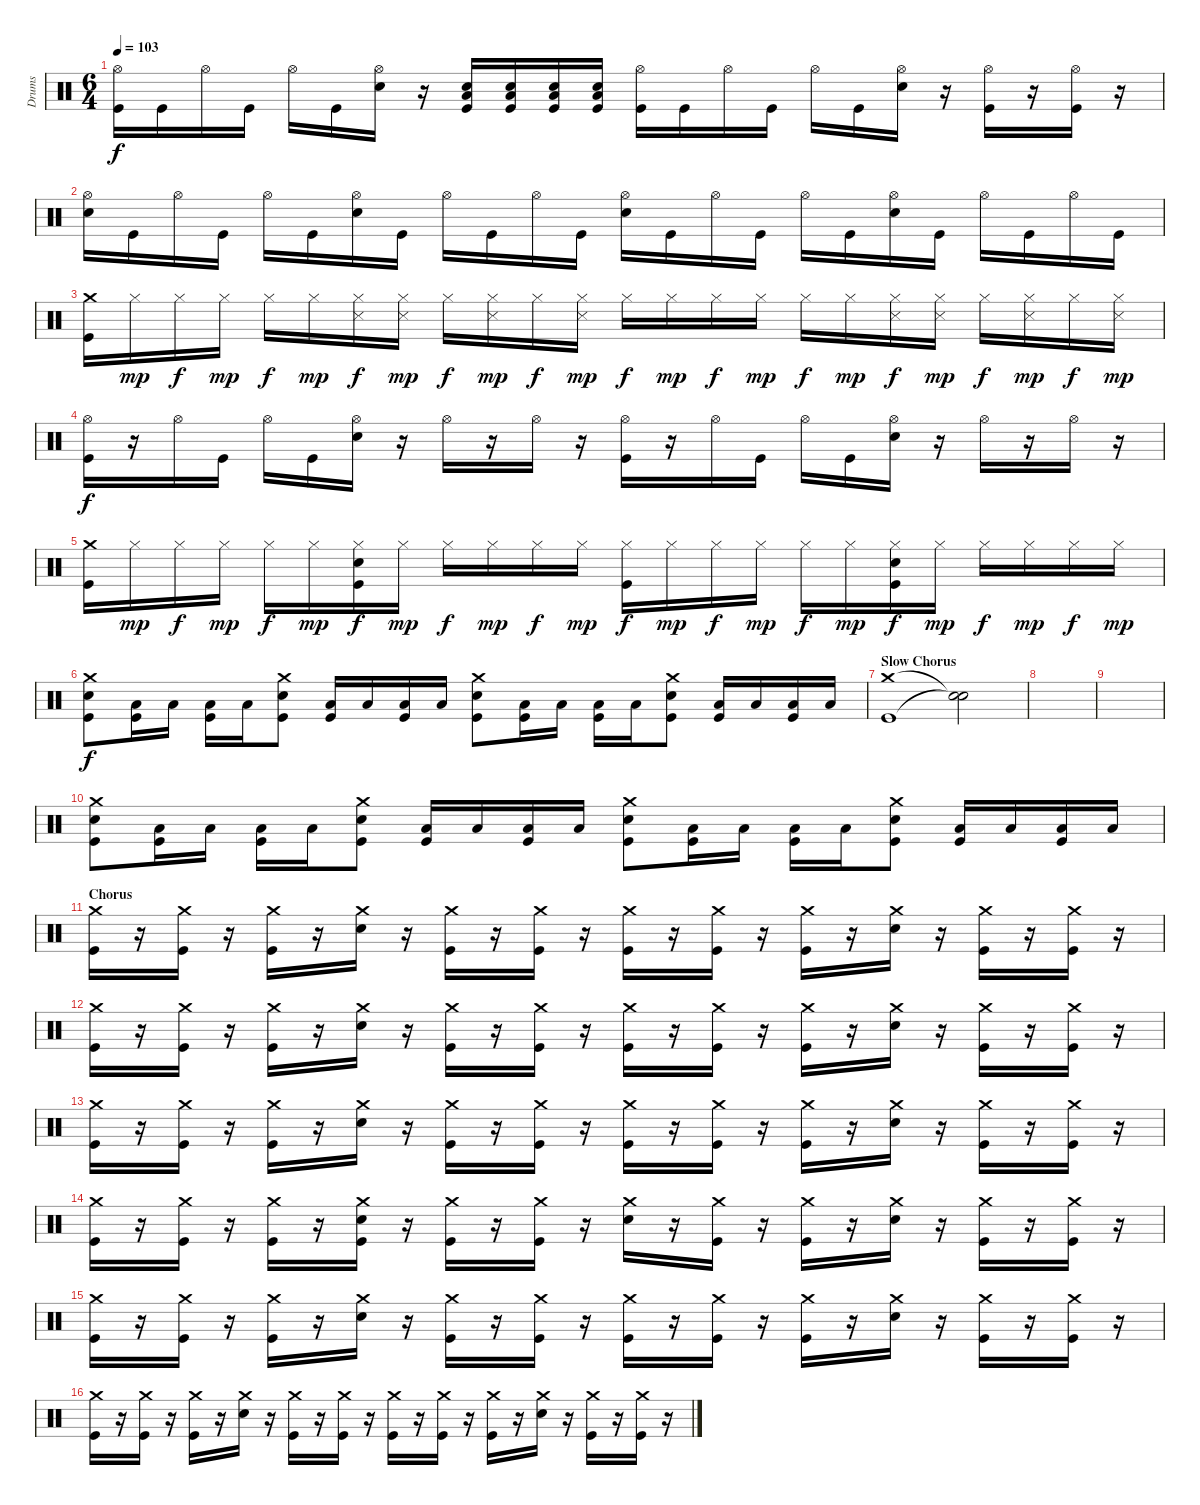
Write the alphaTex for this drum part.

\track ("Drums" "Drums") {instrument percussion}
\staff {score}
\articulation defaults
\ts (6 4)
\tempo 103
\clef neutral
\ks c
("Hi-Hat (open)" "Kick (hit)").16{dy f} "Kick (hit)".16 "Hi-Hat (open)".16 "Kick (hit)".16 "Hi-Hat (open)".16 "Kick (hit)".16 ("Hi-Hat (open)" "Electric Snare (hit)").16 r.16 ("Low Tom (hit)" "Electric Snare (hit)" "Kick (hit)").16 ("Low Tom (hit)" "Electric Snare (hit)" "Kick (hit)").16 ("Low Tom (hit)" "Electric Snare (hit)" "Kick (hit)").16 ("Low Tom (hit)" "Electric Snare (hit)" "Kick (hit)").16 ("Hi-Hat (open)" "Kick (hit)").16 "Kick (hit)".16 "Hi-Hat (open)".16 "Kick (hit)".16 "Hi-Hat (open)".16 "Kick (hit)".16 ("Hi-Hat (open)" "Electric Snare (hit)").16 r.16 ("Hi-Hat (open)" "Kick (hit)").16 r.16 ("Hi-Hat (open)" "Kick (hit)").16 r.16 |
("Hi-Hat (open)" "Electric Snare (hit)").16 "Kick (hit)".16 "Hi-Hat (open)".16 "Kick (hit)".16 "Hi-Hat (open)".16 "Kick (hit)".16 ("Hi-Hat (open)" "Electric Snare (hit)").16 "Kick (hit)".16 "Hi-Hat (open)".16 "Kick (hit)".16 "Hi-Hat (open)".16 "Kick (hit)".16 ("Hi-Hat (open)" "Electric Snare (hit)").16 "Kick (hit)".16 "Hi-Hat (open)".16 "Kick (hit)".16 "Hi-Hat (open)".16 "Kick (hit)".16 ("Hi-Hat (open)" "Electric Snare (hit)").16 "Kick (hit)".16 "Hi-Hat (open)".16 "Kick (hit)".16 "Hi-Hat (open)".16 "Kick (hit)".16 |
("Crash medium (hit)" "Kick (hit)").16 "Hi-Hat (closed)".16{dy mp} "Hi-Hat (closed)".16{dy f} "Hi-Hat (closed)".16{dy mp} "Hi-Hat (closed)".16{dy f} "Hi-Hat (closed)".16{dy mp} ("Hi-Hat (closed)" "Snare (side stick) 3").16{dy f} ("Hi-Hat (closed)" "Snare (side stick) 3").16{dy mp} "Hi-Hat (closed)".16{dy f} ("Hi-Hat (closed)" "Snare (side stick) 3").16{dy mp} "Hi-Hat (closed)".16{dy f} ("Hi-Hat (closed)" "Snare (side stick) 3").16{dy mp} "Hi-Hat (closed)".16{dy f} "Hi-Hat (closed)".16{dy mp} "Hi-Hat (closed)".16{dy f} "Hi-Hat (closed)".16{dy mp} "Hi-Hat (closed)".16{dy f} "Hi-Hat (closed)".16{dy mp} ("Hi-Hat (closed)" "Snare (side stick) 3").16{dy f} ("Hi-Hat (closed)" "Snare (side stick) 3").16{dy mp} "Hi-Hat (closed)".16{dy f} ("Hi-Hat (closed)" "Snare (side stick) 3").16{dy mp} "Hi-Hat (closed)".16{dy f} ("Hi-Hat (closed)" "Snare (side stick) 3").16{dy mp} |
("Hi-Hat (open)" "Kick (hit)").16{dy f} r.16 "Hi-Hat (open)".16 "Kick (hit)".16 "Hi-Hat (open)".16 "Kick (hit)".16 ("Hi-Hat (open)" "Electric Snare (hit)").16 r.16 "Hi-Hat (open)".16 r.16 "Hi-Hat (open)".16 r.16 ("Hi-Hat (open)" "Kick (hit)").16 r.16 "Hi-Hat (open)".16 "Kick (hit)".16 "Hi-Hat (open)".16 "Kick (hit)".16 ("Hi-Hat (open)" "Electric Snare (hit)").16 r.16 "Hi-Hat (open)".16 r.16 "Hi-Hat (open)".16 r.16 |
("Crash medium (hit)" "Kick (hit)").16 "Hi-Hat (closed)".16{dy mp} "Hi-Hat (closed)".16{dy f} "Hi-Hat (closed)".16{dy mp} "Hi-Hat (closed)".16{dy f} "Hi-Hat (closed)".16{dy mp} ("Hi-Hat (closed)" "Electric Snare (hit)" "Kick (hit)").16{dy f} "Hi-Hat (closed)".16{dy mp} "Hi-Hat (closed)".16{dy f} "Hi-Hat (closed)".16{dy mp} "Hi-Hat (closed)".16{dy f} "Hi-Hat (closed)".16{dy mp} ("Hi-Hat (closed)" "Kick (hit)").16{dy f} "Hi-Hat (closed)".16{dy mp} "Hi-Hat (closed)".16{dy f} "Hi-Hat (closed)".16{dy mp} "Hi-Hat (closed)".16{dy f} "Hi-Hat (closed)".16{dy mp} ("Hi-Hat (closed)" "Electric Snare (hit)" "Kick (hit)").16{dy f} "Hi-Hat (closed)".16{dy mp} "Hi-Hat (closed)".16{dy f} "Hi-Hat (closed)".16{dy mp} "Hi-Hat (closed)".16{dy f} "Hi-Hat (closed)".16{dy mp} |
("Crash medium (hit)" "Electric Snare (hit)" "Kick (hit)").8{dy f} ("Low Tom (hit)" "Kick (hit)").16 "Low Tom (hit)".16 ("Low Tom (hit)" "Kick (hit)").16 "Low Tom (hit)".16 ("Crash medium (hit)" "Electric Snare (hit)" "Kick (hit)").8 ("Low Tom (hit)" "Kick (hit)").16 "Low Tom (hit)".16 ("Low Tom (hit)" "Kick (hit)").16 "Low Tom (hit)".16 ("Crash medium (hit)" "Electric Snare (hit)" "Kick (hit)").8 ("Low Tom (hit)" "Kick (hit)").16 "Low Tom (hit)".16 ("Low Tom (hit)" "Kick (hit)").16 "Low Tom (hit)".16 ("Crash medium (hit)" "Electric Snare (hit)" "Kick (hit)").8 ("Low Tom (hit)" "Kick (hit)").16 "Low Tom (hit)".16 ("Low Tom (hit)" "Kick (hit)").16 "Low Tom (hit)".16 |
\section ("" "Slow Chorus")
("Crash medium (hit)" "Kick (hit)").1 ("Snare (hit)"{t} "Snare (hit)"{t}).2 |
|
|
("Crash medium (hit)" "Electric Snare (hit)" "Kick (hit)").8 ("Low Tom (hit)" "Kick (hit)").16 "Low Tom (hit)".16 ("Low Tom (hit)" "Kick (hit)").16 "Low Tom (hit)".16 ("Crash medium (hit)" "Electric Snare (hit)" "Kick (hit)").8 ("Low Tom (hit)" "Kick (hit)").16 "Low Tom (hit)".16 ("Low Tom (hit)" "Kick (hit)").16 "Low Tom (hit)".16 ("Crash medium (hit)" "Electric Snare (hit)" "Kick (hit)").8 ("Low Tom (hit)" "Kick (hit)").16 "Low Tom (hit)".16 ("Low Tom (hit)" "Kick (hit)").16 "Low Tom (hit)".16 ("Crash medium (hit)" "Electric Snare (hit)" "Kick (hit)").8 ("Low Tom (hit)" "Kick (hit)").16 "Low Tom (hit)".16 ("Low Tom (hit)" "Kick (hit)").16 "Low Tom (hit)".16 |
\section ("" "Chorus")
("Crash medium (hit)" "Kick (hit)").16 r.16 ("Crash medium (hit)" "Kick (hit)").16 r.16 ("Crash medium (hit)" "Kick (hit)").16 r.16 ("Crash medium (hit)" "Electric Snare (hit)").16 r.16 ("Crash medium (hit)" "Kick (hit)").16 r.16 ("Crash medium (hit)" "Kick (hit)").16 r.16 ("Crash medium (hit)" "Kick (hit)").16 r.16 ("Crash medium (hit)" "Kick (hit)").16 r.16 ("Crash medium (hit)" "Kick (hit)").16 r.16 ("Crash medium (hit)" "Electric Snare (hit)").16 r.16 ("Crash medium (hit)" "Kick (hit)").16 r.16 ("Crash medium (hit)" "Kick (hit)").16 r.16 |
("Crash medium (hit)" "Kick (hit)").16 r.16 ("Crash medium (hit)" "Kick (hit)").16 r.16 ("Crash medium (hit)" "Kick (hit)").16 r.16 ("Crash medium (hit)" "Electric Snare (hit)").16 r.16 ("Crash medium (hit)" "Kick (hit)").16 r.16 ("Crash medium (hit)" "Kick (hit)").16 r.16 ("Crash medium (hit)" "Kick (hit)").16 r.16 ("Crash medium (hit)" "Kick (hit)").16 r.16 ("Crash medium (hit)" "Kick (hit)").16 r.16 ("Crash medium (hit)" "Electric Snare (hit)").16 r.16 ("Crash medium (hit)" "Kick (hit)").16 r.16 ("Crash medium (hit)" "Kick (hit)").16 r.16 |
("Crash medium (hit)" "Kick (hit)").16 r.16 ("Crash medium (hit)" "Kick (hit)").16 r.16 ("Crash medium (hit)" "Kick (hit)").16 r.16 ("Crash medium (hit)" "Electric Snare (hit)").16 r.16 ("Crash medium (hit)" "Kick (hit)").16 r.16 ("Crash medium (hit)" "Kick (hit)").16 r.16 ("Crash medium (hit)" "Kick (hit)").16 r.16 ("Crash medium (hit)" "Kick (hit)").16 r.16 ("Crash medium (hit)" "Kick (hit)").16 r.16 ("Crash medium (hit)" "Electric Snare (hit)").16 r.16 ("Crash medium (hit)" "Kick (hit)").16 r.16 ("Crash medium (hit)" "Kick (hit)").16 r.16 |
("Crash medium (hit)" "Kick (hit)").16 r.16 ("Crash medium (hit)" "Kick (hit)").16 r.16 ("Crash medium (hit)" "Kick (hit)").16 r.16 ("Crash medium (hit)" "Electric Snare (hit)" "Kick (hit)").16 r.16 ("Crash medium (hit)" "Kick (hit)").16 r.16 ("Crash medium (hit)" "Kick (hit)").16 r.16 ("Crash medium (hit)" "Electric Snare (hit)").16 r.16 ("Crash medium (hit)" "Kick (hit)").16 r.16 ("Crash medium (hit)" "Kick (hit)").16 r.16 ("Crash medium (hit)" "Electric Snare (hit)").16 r.16 ("Crash medium (hit)" "Kick (hit)").16 r.16 ("Crash medium (hit)" "Kick (hit)").16 r.16 |
("Crash medium (hit)" "Kick (hit)").16 r.16 ("Crash medium (hit)" "Kick (hit)").16 r.16 ("Crash medium (hit)" "Kick (hit)").16 r.16 ("Crash medium (hit)" "Electric Snare (hit)").16 r.16 ("Crash medium (hit)" "Kick (hit)").16 r.16 ("Crash medium (hit)" "Kick (hit)").16 r.16 ("Crash medium (hit)" "Kick (hit)").16 r.16 ("Crash medium (hit)" "Kick (hit)").16 r.16 ("Crash medium (hit)" "Kick (hit)").16 r.16 ("Crash medium (hit)" "Electric Snare (hit)").16 r.16 ("Crash medium (hit)" "Kick (hit)").16 r.16 ("Crash medium (hit)" "Kick (hit)").16 r.16 |
("Crash medium (hit)" "Kick (hit)").16 r.16 ("Crash medium (hit)" "Kick (hit)").16 r.16 ("Crash medium (hit)" "Kick (hit)").16 r.16 ("Crash medium (hit)" "Electric Snare (hit)").16 r.16 ("Crash medium (hit)" "Kick (hit)").16 r.16 ("Crash medium (hit)" "Kick (hit)").16 r.16 ("Crash medium (hit)" "Kick (hit)").16 r.16 ("Crash medium (hit)" "Kick (hit)").16 r.16 ("Crash medium (hit)" "Kick (hit)").16 r.16 ("Crash medium (hit)" "Electric Snare (hit)").16 r.16 ("Crash medium (hit)" "Kick (hit)").16 r.16 ("Crash medium (hit)" "Kick (hit)").16 r.16
